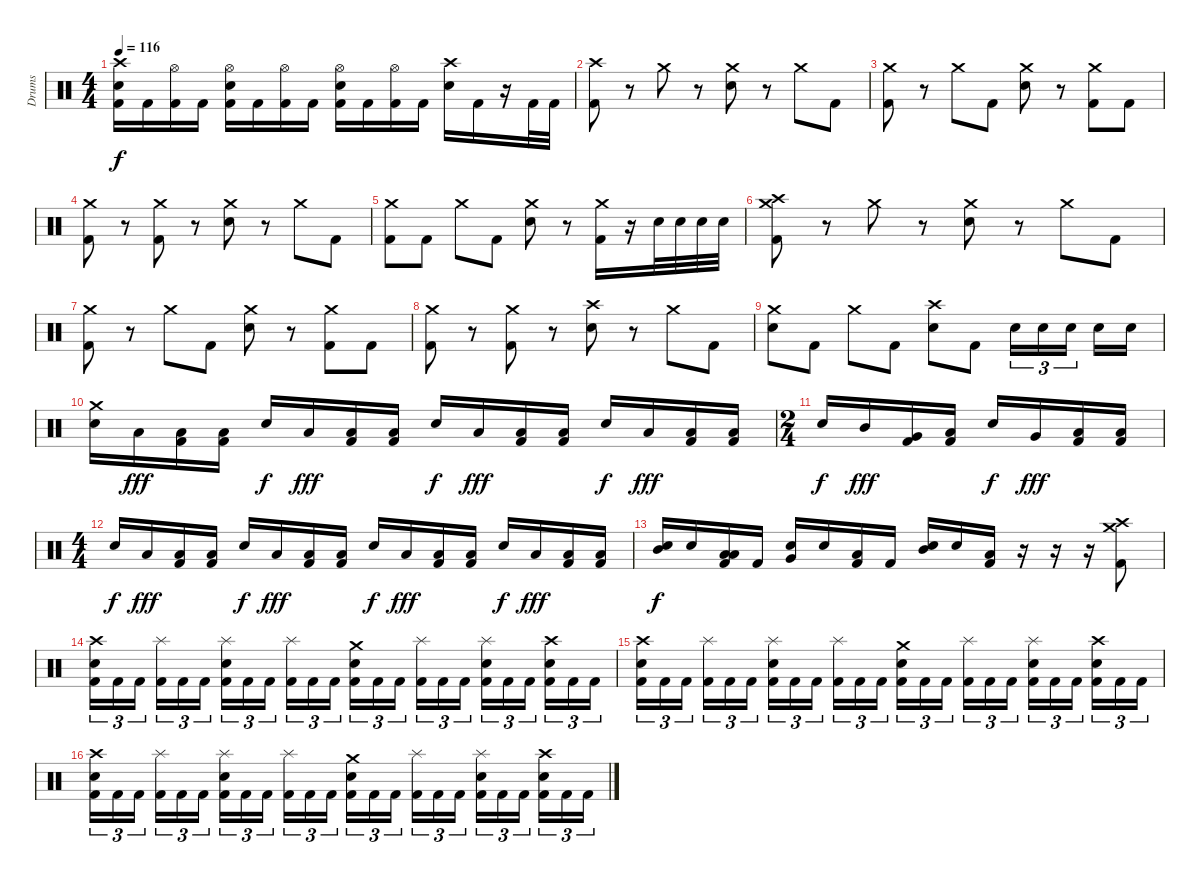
\track ("Drums" "Drums") {instrument percussion}
\staff {score}
\articulation defaults
\ts (4 4)
\tempo 116
\clef neutral
\ks c
("Crash high (hit)" "Snare (hit) 2" "Kick (hit) 2").16{dy f} "Kick (hit) 2".16 ("Hi-Hat (open)" "Kick (hit) 2").16 "Kick (hit) 2".16 ("Hi-Hat (open)" "Snare (hit) 2" "Kick (hit) 2").16 "Kick (hit) 2".16 ("Hi-Hat (open)" "Kick (hit) 2").16 "Kick (hit) 2".16 ("Hi-Hat (open)" "Snare (hit) 2" "Kick (hit) 2").16 "Kick (hit) 2".16 ("Hi-Hat (open)" "Kick (hit) 2").16 "Kick (hit) 2".16 ("Crash high (hit)" "Snare (hit) 2").16 "Kick (hit) 2".16 r.16 "Kick (hit) 2".32 "Kick (hit) 2".32 |
("Crash high (hit)" "Kick (hit) 2").8 r.8 "Crash medium (hit)".8 r.8 ("Crash medium (hit)" "Snare (hit) 2").8 r.8 "Crash medium (hit)".8 "Kick (hit) 2".8 |
("Crash medium (hit)" "Kick (hit) 2").8 r.8 "Crash medium (hit)".8 "Kick (hit) 2".8 ("Crash medium (hit)" "Snare (hit) 2").8 r.8 ("Crash medium (hit)" "Kick (hit) 2").8 "Kick (hit) 2".8 |
("Crash medium (hit)" "Kick (hit) 2").8 r.8 ("Crash medium (hit)" "Kick (hit) 2").8 r.8 ("Crash medium (hit)" "Snare (hit) 2").8 r.8 "Crash medium (hit)".8 "Kick (hit) 2".8 |
("Crash medium (hit)" "Kick (hit) 2").8 "Kick (hit) 2".8 "Crash medium (hit)".8 "Kick (hit) 2".8 ("Crash medium (hit)" "Snare (hit) 2").8 r.8 ("Crash medium (hit)" "Kick (hit) 2").16 r.16 "Snare (hit) 2".32 "Snare (hit) 2".32 "Snare (hit) 2".32 "Snare (hit) 2".32 |
("Crash high (hit)" "Crash medium (hit)" "Kick (hit) 2").8 r.8 "Crash medium (hit)".8 r.8 ("Crash medium (hit)" "Snare (hit) 2").8 r.8 "Crash medium (hit)".8 "Kick (hit) 2".8 |
("Crash medium (hit)" "Kick (hit) 2").8 r.8 "Crash medium (hit)".8 "Kick (hit) 2".8 ("Crash medium (hit)" "Snare (hit) 2").8 r.8 ("Crash medium (hit)" "Kick (hit) 2").8 "Kick (hit) 2".8 |
("Crash medium (hit)" "Kick (hit) 2").8 r.8 ("Crash medium (hit)" "Kick (hit) 2").8 r.8 ("Crash high (hit)" "Snare (hit) 2").8 r.8 "Crash medium (hit)".8 "Kick (hit) 2".8 |
("Crash medium (hit)" "Snare (hit) 2").8 "Kick (hit) 2".8 "Crash medium (hit)".8 "Kick (hit) 2".8 ("Crash high (hit)" "Snare (hit) 2").8 "Kick (hit) 2".8 "Snare (hit) 2".16{tu (3 2)} "Snare (hit) 2".16{tu (3 2)} "Snare (hit) 2".16{tu (3 2)} "Snare (hit) 2".16 "Snare (hit) 2".16 |
("Crash medium (hit)" "Snare (hit) 2").16 "Low Tom (hit)".16{dy fff} ("Low Tom (hit)" "Kick (hit) 2").16 ("Low Tom (hit)" "Kick (hit) 2").16 "Snare (hit) 2".16{dy f} "Low Tom (hit)".16{dy fff} ("Low Tom (hit)" "Kick (hit) 2").16 ("Low Tom (hit)" "Kick (hit) 2").16 "Snare (hit) 2".16{dy f} "Low Tom (hit)".16{dy fff} ("Low Tom (hit)" "Kick (hit) 2").16 ("Low Tom (hit)" "Kick (hit) 2").16 "Snare (hit) 2".16{dy f} "Low Tom (hit)".16{dy fff} ("Low Tom (hit)" "Kick (hit) 2").16 ("Low Tom (hit)" "Kick (hit) 2").16 |
\ts (2 4)
"Snare (hit) 2".16{dy f} "Mid Tom (hit)".16{dy fff} ("Very Low Tom (hit)" "Kick (hit) 2").16 ("Low Tom (hit)" "Kick (hit) 2").16 "Snare (hit) 2".16{dy f} "Very Low Tom (hit)".16{dy fff} ("Low Floor Tom (hit)" "Kick (hit) 2").16 ("Low Floor Tom (hit)" "Kick (hit) 2").16 |
\ts (4 4)
"Snare (hit) 2".16{dy f} "Low Tom (hit)".16{dy fff} ("Low Tom (hit)" "Kick (hit) 2").16 ("Low Tom (hit)" "Kick (hit) 2").16 "Snare (hit) 2".16{dy f} "Low Tom (hit)".16{dy fff} ("Low Tom (hit)" "Kick (hit) 2").16 ("Low Tom (hit)" "Kick (hit) 2").16 "Snare (hit) 2".16{dy f} "Low Tom (hit)".16{dy fff} ("Low Tom (hit)" "Kick (hit) 2").16 ("Low Tom (hit)" "Kick (hit) 2").16 "Snare (hit) 2".16{dy f} "Low Tom (hit)".16{dy fff} ("Low Tom (hit)" "Kick (hit) 2").16 ("Low Tom (hit)" "Kick (hit) 2").16 |
("Mid Tom (hit)" "Snare (hit) 2").16{dy f} "Snare (hit) 2".16 ("Low Tom (hit)" "Low Floor Tom (hit)" "Kick (hit) 2").16 "Kick (hit) 2".16 ("Very Low Tom (hit)" "Snare (hit) 2").16 "Snare (hit) 2".16 ("Low Floor Tom (hit)" "Kick (hit) 2").16 "Kick (hit) 2".16 ("Mid Tom (hit)" "Snare (hit) 2").16 "Snare (hit) 2".16 ("Low Floor Tom (hit)" "Kick (hit) 2").16 r.16 r.16 r.16 ("Crash high (hit)" "Crash medium (hit)" "Kick (hit) 2").8 |
("Crash high (hit)" "Snare (hit) 2" "Kick (hit) 2").16{tu (3 2)} "Kick (hit) 2".16{tu (3 2)} "Kick (hit) 2".16{tu (3 2)} ("Splash (hit)" "Kick (hit) 2").16{tu (3 2)} "Kick (hit) 2".16{tu (3 2)} "Kick (hit) 2".16{tu (3 2)} ("Splash (hit)" "Snare (hit) 2" "Kick (hit) 2").16{tu (3 2)} "Kick (hit) 2".16{tu (3 2)} "Kick (hit) 2".16{tu (3 2)} ("Splash (hit)" "Kick (hit) 2").16{tu (3 2)} "Kick (hit) 2".16{tu (3 2)} "Kick (hit) 2".16{tu (3 2)} ("Crash medium (hit)" "Snare (hit) 2" "Kick (hit) 2").16{tu (3 2)} "Kick (hit) 2".16{tu (3 2)} "Kick (hit) 2".16{tu (3 2)} ("Splash (hit)" "Kick (hit) 2").16{tu (3 2)} "Kick (hit) 2".16{tu (3 2)} "Kick (hit) 2".16{tu (3 2)} ("Splash (hit)" "Snare (hit) 2" "Kick (hit) 2").16{tu (3 2)} "Kick (hit) 2".16{tu (3 2)} "Kick (hit) 2".16{tu (3 2)} ("Crash high (hit)" "Snare (hit) 2" "Kick (hit) 2").16{tu (3 2)} "Kick (hit) 2".16{tu (3 2)} "Kick (hit) 2".16{tu (3 2)} |
("Crash high (hit)" "Snare (hit) 2" "Kick (hit) 2").16{tu (3 2)} "Kick (hit) 2".16{tu (3 2)} "Kick (hit) 2".16{tu (3 2)} ("Splash (hit)" "Kick (hit) 2").16{tu (3 2)} "Kick (hit) 2".16{tu (3 2)} "Kick (hit) 2".16{tu (3 2)} ("Splash (hit)" "Snare (hit) 2" "Kick (hit) 2").16{tu (3 2)} "Kick (hit) 2".16{tu (3 2)} "Kick (hit) 2".16{tu (3 2)} ("Splash (hit)" "Kick (hit) 2").16{tu (3 2)} "Kick (hit) 2".16{tu (3 2)} "Kick (hit) 2".16{tu (3 2)} ("Crash medium (hit)" "Snare (hit) 2" "Kick (hit) 2").16{tu (3 2)} "Kick (hit) 2".16{tu (3 2)} "Kick (hit) 2".16{tu (3 2)} ("Splash (hit)" "Kick (hit) 2").16{tu (3 2)} "Kick (hit) 2".16{tu (3 2)} "Kick (hit) 2".16{tu (3 2)} ("Splash (hit)" "Snare (hit) 2" "Kick (hit) 2").16{tu (3 2)} "Kick (hit) 2".16{tu (3 2)} "Kick (hit) 2".16{tu (3 2)} ("Crash high (hit)" "Snare (hit) 2" "Kick (hit) 2").16{tu (3 2)} "Kick (hit) 2".16{tu (3 2)} "Kick (hit) 2".16{tu (3 2)} |
("Crash high (hit)" "Snare (hit) 2" "Kick (hit) 2").16{tu (3 2)} "Kick (hit) 2".16{tu (3 2)} "Kick (hit) 2".16{tu (3 2)} ("Splash (hit)" "Kick (hit) 2").16{tu (3 2)} "Kick (hit) 2".16{tu (3 2)} "Kick (hit) 2".16{tu (3 2)} ("Splash (hit)" "Snare (hit) 2" "Kick (hit) 2").16{tu (3 2)} "Kick (hit) 2".16{tu (3 2)} "Kick (hit) 2".16{tu (3 2)} ("Splash (hit)" "Kick (hit) 2").16{tu (3 2)} "Kick (hit) 2".16{tu (3 2)} "Kick (hit) 2".16{tu (3 2)} ("Crash medium (hit)" "Snare (hit) 2" "Kick (hit) 2").16{tu (3 2)} "Kick (hit) 2".16{tu (3 2)} "Kick (hit) 2".16{tu (3 2)} ("Splash (hit)" "Kick (hit) 2").16{tu (3 2)} "Kick (hit) 2".16{tu (3 2)} "Kick (hit) 2".16{tu (3 2)} ("Splash (hit)" "Snare (hit) 2" "Kick (hit) 2").16{tu (3 2)} "Kick (hit) 2".16{tu (3 2)} "Kick (hit) 2".16{tu (3 2)} ("Crash high (hit)" "Snare (hit) 2" "Kick (hit) 2").16{tu (3 2)} "Kick (hit) 2".16{tu (3 2)} "Kick (hit) 2".16{tu (3 2)}
